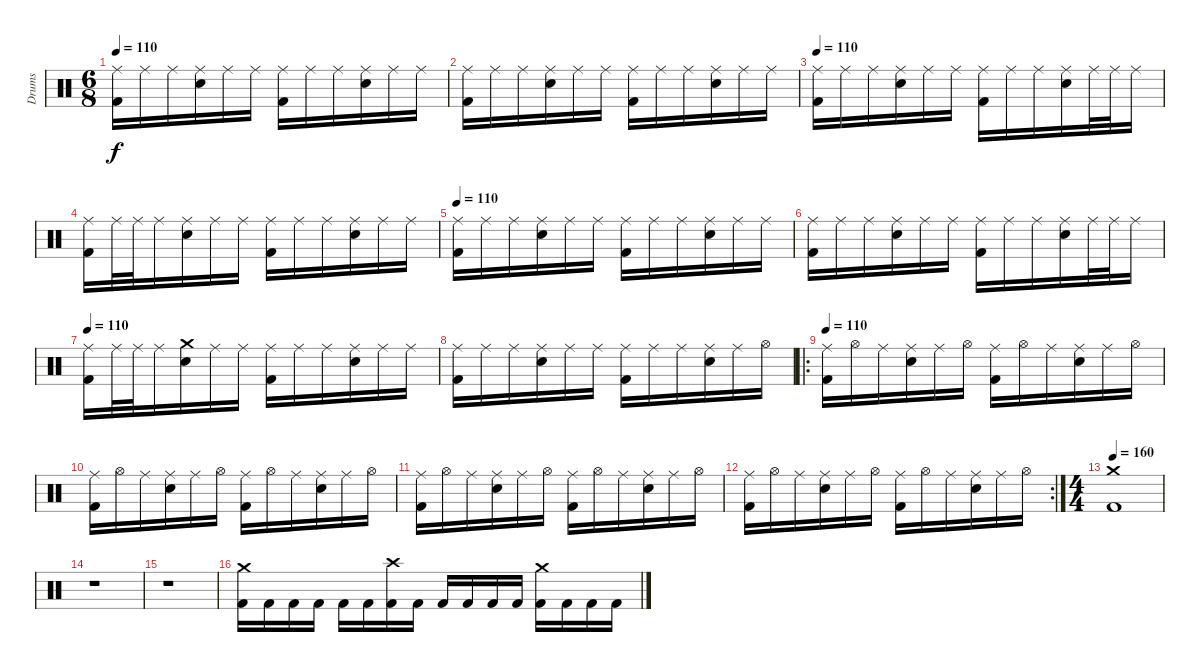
\track ("Drums" "Drums") {instrument percussion}
\staff {score}
\articulation defaults
\ts (6 8)
\tempo 110
\clef neutral
\ks c
("Ride (middle)" "Kick (hit) 2").16{dy f} "Ride (middle)".16 "Ride (middle)".16 ("Ride (middle)" "Electric Snare (hit)").16 "Ride (middle)".16 "Ride (middle)".16 ("Ride (middle)" "Kick (hit) 2").16 "Ride (middle)".16 "Ride (middle)".16 ("Ride (middle)" "Electric Snare (hit)").16 "Ride (middle)".16 "Ride (middle)".16 |
("Ride (middle)" "Kick (hit) 2").16 "Ride (middle)".16 "Ride (middle)".16 ("Ride (middle)" "Electric Snare (hit)").16 "Ride (middle)".16 "Ride (middle)".16 ("Ride (middle)" "Kick (hit) 2").16 "Ride (middle)".16 "Ride (middle)".16 ("Ride (middle)" "Electric Snare (hit)").16 "Ride (middle)".16 "Ride (middle)".16 |
\tempo 110
("Ride (middle)" "Kick (hit) 2").16 "Ride (middle)".16 "Ride (middle)".16 ("Ride (middle)" "Electric Snare (hit)").16 "Ride (middle)".16 "Ride (middle)".16 ("Ride (middle)" "Kick (hit) 2").16 "Ride (middle)".16 "Ride (middle)".16 ("Ride (middle)" "Electric Snare (hit)").16 "Ride (middle)".32 "Ride (middle)".32 "Ride (middle)".16 |
("Ride (middle)" "Kick (hit) 2").16 "Ride (middle)".32 "Ride (middle)".32 "Ride (middle)".16 ("Ride (middle)" "Electric Snare (hit)").16 "Ride (middle)".16 "Ride (middle)".16 ("Ride (middle)" "Kick (hit) 2").16 "Ride (middle)".16 "Ride (middle)".16 ("Ride (middle)" "Electric Snare (hit)").16 "Ride (middle)".16 "Ride (middle)".16 |
\tempo 110
("Ride (middle)" "Kick (hit) 2").16 "Ride (middle)".16 "Ride (middle)".16 ("Ride (middle)" "Electric Snare (hit)").16 "Ride (middle)".16 "Ride (middle)".16 ("Ride (middle)" "Kick (hit) 2").16 "Ride (middle)".16 "Ride (middle)".16 ("Ride (middle)" "Electric Snare (hit)").16 "Ride (middle)".16 "Ride (middle)".16 |
("Ride (middle)" "Kick (hit) 2").16 "Ride (middle)".16 "Ride (middle)".16 ("Ride (middle)" "Electric Snare (hit)").16 "Ride (middle)".16 "Ride (middle)".16 ("Ride (middle)" "Kick (hit) 2").16 "Ride (middle)".16 "Ride (middle)".16 ("Ride (middle)" "Electric Snare (hit)").16 "Ride (middle)".32 "Ride (middle)".32 "Ride (middle)".16 |
\tempo 110
("Ride (middle)" "Kick (hit) 2").16 "Ride (middle)".32 "Ride (middle)".32 "Ride (middle)".16 ("Crash medium (hit)" "Electric Snare (hit)").16 "Ride (middle)".16 "Ride (middle)".16 ("Ride (middle)" "Kick (hit) 2").16 "Ride (middle)".16 "Ride (middle)".16 ("Ride (middle)" "Electric Snare (hit)").16 "Ride (middle)".16 "Ride (middle)".16 |
("Ride (middle)" "Kick (hit) 2").16 "Ride (middle)".16 "Ride (middle)".16 ("Ride (middle)" "Electric Snare (hit)").16 "Ride (middle)".16 "Ride (middle)".16 ("Ride (middle)" "Kick (hit) 2").16 "Ride (middle)".16 "Ride (middle)".16 ("Ride (middle)" "Electric Snare (hit)").16 "Ride (middle)".16 "Hi-Hat (open)".16 |
\ro
\tempo 110
("Ride (middle)" "Kick (hit) 2").16 "Hi-Hat (open)".16 "Ride (middle)".16 ("Ride (middle)" "Electric Snare (hit)").16 "Ride (middle)".16 "Hi-Hat (open)".16 ("Ride (middle)" "Kick (hit) 2").16 "Hi-Hat (open)".16 "Ride (middle)".16 ("Ride (middle)" "Electric Snare (hit)").16 "Ride (middle)".16 "Hi-Hat (open)".16 |
("Ride (middle)" "Kick (hit) 2").16 "Hi-Hat (open)".16 "Ride (middle)".16 ("Ride (middle)" "Electric Snare (hit)").16 "Ride (middle)".16 "Hi-Hat (open)".16 ("Ride (middle)" "Kick (hit) 2").16 "Hi-Hat (open)".16 "Ride (middle)".16 ("Ride (middle)" "Electric Snare (hit)").16 "Ride (middle)".16 "Hi-Hat (open)".16 |
("Ride (middle)" "Kick (hit) 2").16 "Hi-Hat (open)".16 "Ride (middle)".16 ("Ride (middle)" "Electric Snare (hit)").16 "Ride (middle)".16 "Hi-Hat (open)".16 ("Ride (middle)" "Kick (hit) 2").16 "Hi-Hat (open)".16 "Ride (middle)".16 ("Ride (middle)" "Electric Snare (hit)").16 "Ride (middle)".16 "Hi-Hat (open)".16 |
\rc 2
("Ride (middle)" "Kick (hit) 2").16 "Hi-Hat (open)".16 "Ride (middle)".16 ("Ride (middle)" "Electric Snare (hit)").16 "Ride (middle)".16 "Hi-Hat (open)".16 ("Ride (middle)" "Kick (hit) 2").16 "Hi-Hat (open)".16 "Ride (middle)".16 ("Ride (middle)" "Electric Snare (hit)").16 "Ride (middle)".16 "Hi-Hat (open)".16 |
\ts (4 4)
\tempo 160
("Kick (hit) 2" "Crash medium (hit)").1 |
r.1 |
r.1 |
("Kick (hit) 2" "Crash medium (hit)").16 "Kick (hit) 2".16 "Kick (hit) 2".16 "Kick (hit) 2".16 "Kick (hit) 2".16 "Kick (hit) 2".16 ("Kick (hit) 2" "Crash high (hit)").16 "Kick (hit) 2".16 "Kick (hit) 2".16 "Kick (hit) 2".16 "Kick (hit) 2".16 "Kick (hit) 2".16 ("Kick (hit) 2" "Crash medium (hit)").16 "Kick (hit) 2".16 "Kick (hit) 2".16 "Kick (hit) 2".16
